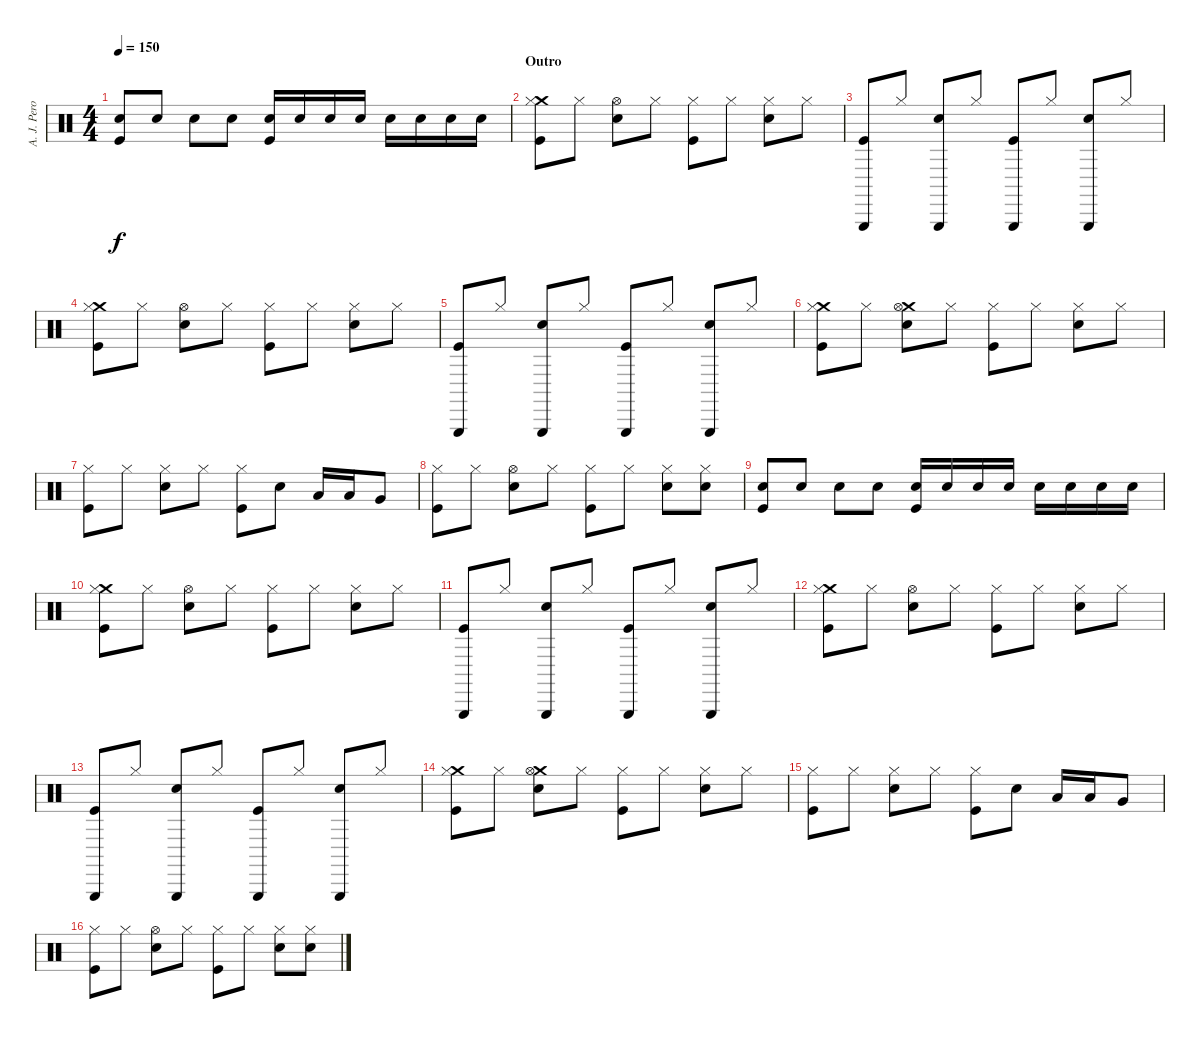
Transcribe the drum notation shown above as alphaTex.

\track ("A. J. Pero - Drums" "A. J. Pero") {instrument percussion}
\staff {score}
\articulation defaults
\ts (4 4)
\tempo 150
\clef neutral
\ks c
("Snare (hit) 2" "Kick (hit)").8{dy f} "Snare (hit) 2".8 "Snare (hit) 2".8 "Snare (hit) 2".8 ("Snare (hit) 2" "Kick (hit)").16 "Snare (hit) 2".16 "Snare (hit) 2".16 "Snare (hit) 2".16 "Snare (hit) 2".16 "Snare (hit) 2".16 "Snare (hit) 2".16 "Snare (hit) 2".16 |
\section ("" "Outro")
("Crash medium (hit)" "Hi-Hat (closed)" "Kick (hit)").8 "Hi-Hat (closed)".8 ("Hi-Hat (open)" "Snare (hit) 2").8 "Hi-Hat (closed)".8 ("Hi-Hat (closed)" "Kick (hit)").8 "Hi-Hat (closed)".8 ("Hi-Hat (closed)" "Snare (hit) 2").8 "Hi-Hat (closed)".8 |
("Triangle (hit)" "Kick (hit)").8 "Hi-Hat (closed)".8 ("Triangle (hit)" "Snare (hit) 2").8 "Hi-Hat (closed)".8 ("Triangle (hit)" "Kick (hit)").8 "Hi-Hat (closed)".8 ("Triangle (hit)" "Snare (hit) 2").8 "Hi-Hat (closed)".8 |
("Crash medium (hit)" "Hi-Hat (closed)" "Kick (hit)").8 "Hi-Hat (closed)".8 ("Hi-Hat (open)" "Snare (hit) 2").8 "Hi-Hat (closed)".8 ("Hi-Hat (closed)" "Kick (hit)").8 "Hi-Hat (closed)".8 ("Hi-Hat (closed)" "Snare (hit) 2").8 "Hi-Hat (closed)".8 |
("Triangle (hit)" "Kick (hit)").8 "Hi-Hat (closed)".8 ("Triangle (hit)" "Snare (hit) 2").8 "Hi-Hat (closed)".8 ("Triangle (hit)" "Kick (hit)").8 "Hi-Hat (closed)".8 ("Triangle (hit)" "Snare (hit) 2").8 "Hi-Hat (closed)".8 |
("Crash medium (hit)" "Hi-Hat (closed)" "Kick (hit)").8 "Hi-Hat (closed)".8 ("Crash medium (hit)" "Hi-Hat (open)" "Snare (hit) 2").8 "Hi-Hat (closed)".8 ("Hi-Hat (closed)" "Kick (hit)").8 "Hi-Hat (closed)".8 ("Hi-Hat (closed)" "Snare (hit) 2").8 "Hi-Hat (closed)".8 |
("Hi-Hat (closed)" "Kick (hit)").8 "Hi-Hat (closed)".8 ("Hi-Hat (closed)" "Snare (hit) 2").8 "Hi-Hat (closed)".8 ("Hi-Hat (closed)" "Kick (hit)").8 "Snare (hit) 2".8 "Low Floor Tom (hit)".16 "Low Floor Tom (hit)".16 "Very Low Tom (hit)".8 |
("Hi-Hat (closed)" "Kick (hit)").8 "Hi-Hat (closed)".8 ("Hi-Hat (open)" "Snare (hit) 2").8 "Hi-Hat (closed)".8 ("Hi-Hat (closed)" "Kick (hit)").8 "Hi-Hat (closed)".8 ("Hi-Hat (closed)" "Snare (hit) 2").8 ("Hi-Hat (closed)" "Snare (hit) 2").8 |
("Snare (hit) 2" "Kick (hit)").8 "Snare (hit) 2".8 "Snare (hit) 2".8 "Snare (hit) 2".8 ("Snare (hit) 2" "Kick (hit)").16 "Snare (hit) 2".16 "Snare (hit) 2".16 "Snare (hit) 2".16 "Snare (hit) 2".16 "Snare (hit) 2".16 "Snare (hit) 2".16 "Snare (hit) 2".16 |
("Crash medium (hit)" "Hi-Hat (closed)" "Kick (hit)").8 "Hi-Hat (closed)".8 ("Hi-Hat (open)" "Snare (hit) 2").8 "Hi-Hat (closed)".8 ("Hi-Hat (closed)" "Kick (hit)").8 "Hi-Hat (closed)".8 ("Hi-Hat (closed)" "Snare (hit) 2").8 "Hi-Hat (closed)".8 |
("Triangle (hit)" "Kick (hit)").8 "Hi-Hat (closed)".8 ("Triangle (hit)" "Snare (hit) 2").8 "Hi-Hat (closed)".8 ("Triangle (hit)" "Kick (hit)").8 "Hi-Hat (closed)".8 ("Triangle (hit)" "Snare (hit) 2").8 "Hi-Hat (closed)".8 |
("Crash medium (hit)" "Hi-Hat (closed)" "Kick (hit)").8 "Hi-Hat (closed)".8 ("Hi-Hat (open)" "Snare (hit) 2").8 "Hi-Hat (closed)".8 ("Hi-Hat (closed)" "Kick (hit)").8 "Hi-Hat (closed)".8 ("Hi-Hat (closed)" "Snare (hit) 2").8 "Hi-Hat (closed)".8 |
("Triangle (hit)" "Kick (hit)").8 "Hi-Hat (closed)".8 ("Triangle (hit)" "Snare (hit) 2").8 "Hi-Hat (closed)".8 ("Triangle (hit)" "Kick (hit)").8 "Hi-Hat (closed)".8 ("Triangle (hit)" "Snare (hit) 2").8 "Hi-Hat (closed)".8 |
("Crash medium (hit)" "Hi-Hat (closed)" "Kick (hit)").8 "Hi-Hat (closed)".8 ("Crash medium (hit)" "Hi-Hat (open)" "Snare (hit) 2").8 "Hi-Hat (closed)".8 ("Hi-Hat (closed)" "Kick (hit)").8 "Hi-Hat (closed)".8 ("Hi-Hat (closed)" "Snare (hit) 2").8 "Hi-Hat (closed)".8 |
("Hi-Hat (closed)" "Kick (hit)").8 "Hi-Hat (closed)".8 ("Hi-Hat (closed)" "Snare (hit) 2").8 "Hi-Hat (closed)".8 ("Hi-Hat (closed)" "Kick (hit)").8 "Snare (hit) 2".8 "Low Floor Tom (hit)".16 "Low Floor Tom (hit)".16 "Very Low Tom (hit)".8 |
("Hi-Hat (closed)" "Kick (hit)").8 "Hi-Hat (closed)".8 ("Hi-Hat (open)" "Snare (hit) 2").8 "Hi-Hat (closed)".8 ("Hi-Hat (closed)" "Kick (hit)").8 "Hi-Hat (closed)".8 ("Hi-Hat (closed)" "Snare (hit) 2").8 ("Hi-Hat (closed)" "Snare (hit) 2").8
